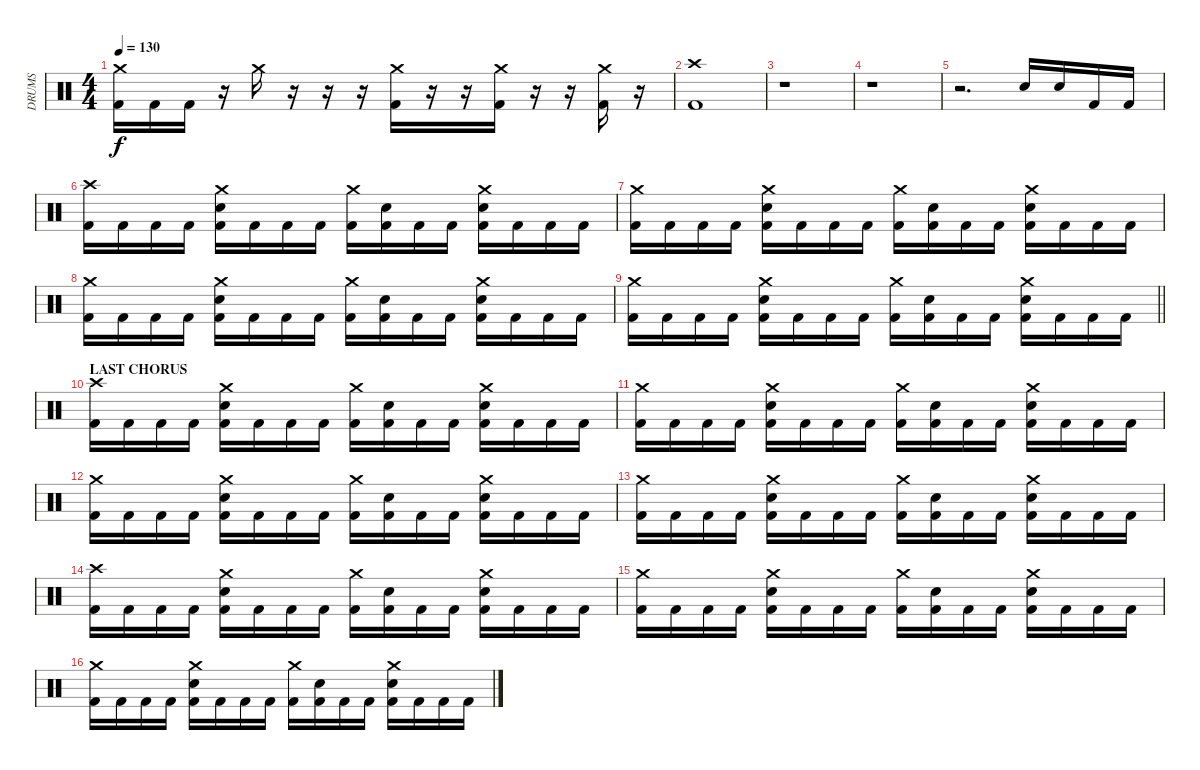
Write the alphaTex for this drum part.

\track ("DRUMS" "DRUMS") {instrument percussion}
\staff {score}
\articulation defaults
\ts (4 4)
\tempo 130
\clef neutral
\ks c
("Crash medium (hit)" "Kick (hit) 2").16{dy f} "Kick (hit) 2".16 "Kick (hit) 2".16 r.16 "Crash medium (hit)".16 r.16 r.16 r.16 ("Crash medium (hit)" "Kick (hit) 2").16 r.16 r.16 ("Crash medium (hit)" "Kick (hit) 2").16 r.16 r.16 ("Crash medium (hit)" "Kick (hit) 2").16 r.16 |
("Crash high (hit)" "Kick (hit) 2").1 |
r.1 |
r.1 |
r.2{d} "Electric Snare (hit)".16 "Electric Snare (hit)".16 "Kick (hit) 2".16 "Kick (hit) 2".16 |
("Crash high (hit)" "Kick (hit) 2").16 "Kick (hit) 2".16 "Kick (hit) 2".16 "Kick (hit) 2".16 ("Crash medium (hit)" "Electric Snare (hit)" "Kick (hit) 2").16 "Kick (hit) 2".16 "Kick (hit) 2".16 "Kick (hit) 2".16 ("Crash medium (hit)" "Kick (hit) 2").16 ("Electric Snare (hit)" "Kick (hit) 2").16 "Kick (hit) 2".16 "Kick (hit) 2".16 ("Crash medium (hit)" "Electric Snare (hit)" "Kick (hit) 2").16 "Kick (hit) 2".16 "Kick (hit) 2".16 "Kick (hit) 2".16 |
("Crash medium (hit)" "Kick (hit) 2").16 "Kick (hit) 2".16 "Kick (hit) 2".16 "Kick (hit) 2".16 ("Crash medium (hit)" "Electric Snare (hit)" "Kick (hit) 2").16 "Kick (hit) 2".16 "Kick (hit) 2".16 "Kick (hit) 2".16 ("Crash medium (hit)" "Kick (hit) 2").16 ("Electric Snare (hit)" "Kick (hit) 2").16 "Kick (hit) 2".16 "Kick (hit) 2".16 ("Crash medium (hit)" "Electric Snare (hit)" "Kick (hit) 2").16 "Kick (hit) 2".16 "Kick (hit) 2".16 "Kick (hit) 2".16 |
("Crash medium (hit)" "Kick (hit) 2").16 "Kick (hit) 2".16 "Kick (hit) 2".16 "Kick (hit) 2".16 ("Crash medium (hit)" "Electric Snare (hit)" "Kick (hit) 2").16 "Kick (hit) 2".16 "Kick (hit) 2".16 "Kick (hit) 2".16 ("Crash medium (hit)" "Kick (hit) 2").16 ("Electric Snare (hit)" "Kick (hit) 2").16 "Kick (hit) 2".16 "Kick (hit) 2".16 ("Crash medium (hit)" "Electric Snare (hit)" "Kick (hit) 2").16 "Kick (hit) 2".16 "Kick (hit) 2".16 "Kick (hit) 2".16 |
\barLineRight lightlight
("Crash medium (hit)" "Kick (hit) 2").16 "Kick (hit) 2".16 "Kick (hit) 2".16 "Kick (hit) 2".16 ("Crash medium (hit)" "Electric Snare (hit)" "Kick (hit) 2").16 "Kick (hit) 2".16 "Kick (hit) 2".16 "Kick (hit) 2".16 ("Crash medium (hit)" "Kick (hit) 2").16 ("Electric Snare (hit)" "Kick (hit) 2").16 "Kick (hit) 2".16 "Kick (hit) 2".16 ("Crash medium (hit)" "Electric Snare (hit)" "Kick (hit) 2").16 "Kick (hit) 2".16 "Kick (hit) 2".16 "Kick (hit) 2".16 |
\section ("" "LAST CHORUS")
("Crash high (hit)" "Kick (hit) 2").16 "Kick (hit) 2".16 "Kick (hit) 2".16 "Kick (hit) 2".16 ("Crash medium (hit)" "Electric Snare (hit)" "Kick (hit) 2").16 "Kick (hit) 2".16 "Kick (hit) 2".16 "Kick (hit) 2".16 ("Crash medium (hit)" "Kick (hit) 2").16 ("Electric Snare (hit)" "Kick (hit) 2").16 "Kick (hit) 2".16 "Kick (hit) 2".16 ("Crash medium (hit)" "Electric Snare (hit)" "Kick (hit) 2").16 "Kick (hit) 2".16 "Kick (hit) 2".16 "Kick (hit) 2".16 |
("Crash medium (hit)" "Kick (hit) 2").16 "Kick (hit) 2".16 "Kick (hit) 2".16 "Kick (hit) 2".16 ("Crash medium (hit)" "Electric Snare (hit)" "Kick (hit) 2").16 "Kick (hit) 2".16 "Kick (hit) 2".16 "Kick (hit) 2".16 ("Crash medium (hit)" "Kick (hit) 2").16 ("Electric Snare (hit)" "Kick (hit) 2").16 "Kick (hit) 2".16 "Kick (hit) 2".16 ("Crash medium (hit)" "Electric Snare (hit)" "Kick (hit) 2").16 "Kick (hit) 2".16 "Kick (hit) 2".16 "Kick (hit) 2".16 |
("Crash medium (hit)" "Kick (hit) 2").16 "Kick (hit) 2".16 "Kick (hit) 2".16 "Kick (hit) 2".16 ("Crash medium (hit)" "Electric Snare (hit)" "Kick (hit) 2").16 "Kick (hit) 2".16 "Kick (hit) 2".16 "Kick (hit) 2".16 ("Crash medium (hit)" "Kick (hit) 2").16 ("Electric Snare (hit)" "Kick (hit) 2").16 "Kick (hit) 2".16 "Kick (hit) 2".16 ("Crash medium (hit)" "Electric Snare (hit)" "Kick (hit) 2").16 "Kick (hit) 2".16 "Kick (hit) 2".16 "Kick (hit) 2".16 |
("Crash medium (hit)" "Kick (hit) 2").16 "Kick (hit) 2".16 "Kick (hit) 2".16 "Kick (hit) 2".16 ("Crash medium (hit)" "Electric Snare (hit)" "Kick (hit) 2").16 "Kick (hit) 2".16 "Kick (hit) 2".16 "Kick (hit) 2".16 ("Crash medium (hit)" "Kick (hit) 2").16 ("Electric Snare (hit)" "Kick (hit) 2").16 "Kick (hit) 2".16 "Kick (hit) 2".16 ("Crash medium (hit)" "Electric Snare (hit)" "Kick (hit) 2").16 "Kick (hit) 2".16 "Kick (hit) 2".16 "Kick (hit) 2".16 |
("Crash high (hit)" "Kick (hit) 2").16 "Kick (hit) 2".16 "Kick (hit) 2".16 "Kick (hit) 2".16 ("Crash medium (hit)" "Electric Snare (hit)" "Kick (hit) 2").16 "Kick (hit) 2".16 "Kick (hit) 2".16 "Kick (hit) 2".16 ("Crash medium (hit)" "Kick (hit) 2").16 ("Electric Snare (hit)" "Kick (hit) 2").16 "Kick (hit) 2".16 "Kick (hit) 2".16 ("Crash medium (hit)" "Electric Snare (hit)" "Kick (hit) 2").16 "Kick (hit) 2".16 "Kick (hit) 2".16 "Kick (hit) 2".16 |
("Crash medium (hit)" "Kick (hit) 2").16 "Kick (hit) 2".16 "Kick (hit) 2".16 "Kick (hit) 2".16 ("Crash medium (hit)" "Electric Snare (hit)" "Kick (hit) 2").16 "Kick (hit) 2".16 "Kick (hit) 2".16 "Kick (hit) 2".16 ("Crash medium (hit)" "Kick (hit) 2").16 ("Electric Snare (hit)" "Kick (hit) 2").16 "Kick (hit) 2".16 "Kick (hit) 2".16 ("Crash medium (hit)" "Electric Snare (hit)" "Kick (hit) 2").16 "Kick (hit) 2".16 "Kick (hit) 2".16 "Kick (hit) 2".16 |
("Crash medium (hit)" "Kick (hit) 2").16 "Kick (hit) 2".16 "Kick (hit) 2".16 "Kick (hit) 2".16 ("Crash medium (hit)" "Electric Snare (hit)" "Kick (hit) 2").16 "Kick (hit) 2".16 "Kick (hit) 2".16 "Kick (hit) 2".16 ("Crash medium (hit)" "Kick (hit) 2").16 ("Electric Snare (hit)" "Kick (hit) 2").16 "Kick (hit) 2".16 "Kick (hit) 2".16 ("Crash medium (hit)" "Electric Snare (hit)" "Kick (hit) 2").16 "Kick (hit) 2".16 "Kick (hit) 2".16 "Kick (hit) 2".16
